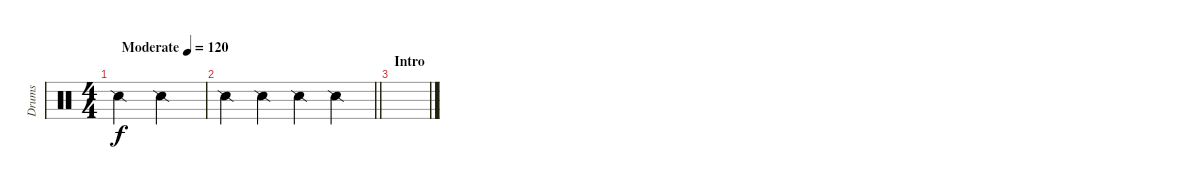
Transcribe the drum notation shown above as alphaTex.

\track ("Drums" "Drums") {instrument percussion}
\staff {score}
\articulation defaults
\ts (4 4)
\tempo (120 "Moderate")
\clef neutral
\ks c "Snare (side stick) 2".2{dy f} "Snare (side stick) 2".2
|
\barLineRight lightlight "Snare (side stick) 2".4 "Snare (side stick) 2".4 "Snare (side stick) 2".4 "Snare (side stick) 2".4
|
\section ("" "Intro")
